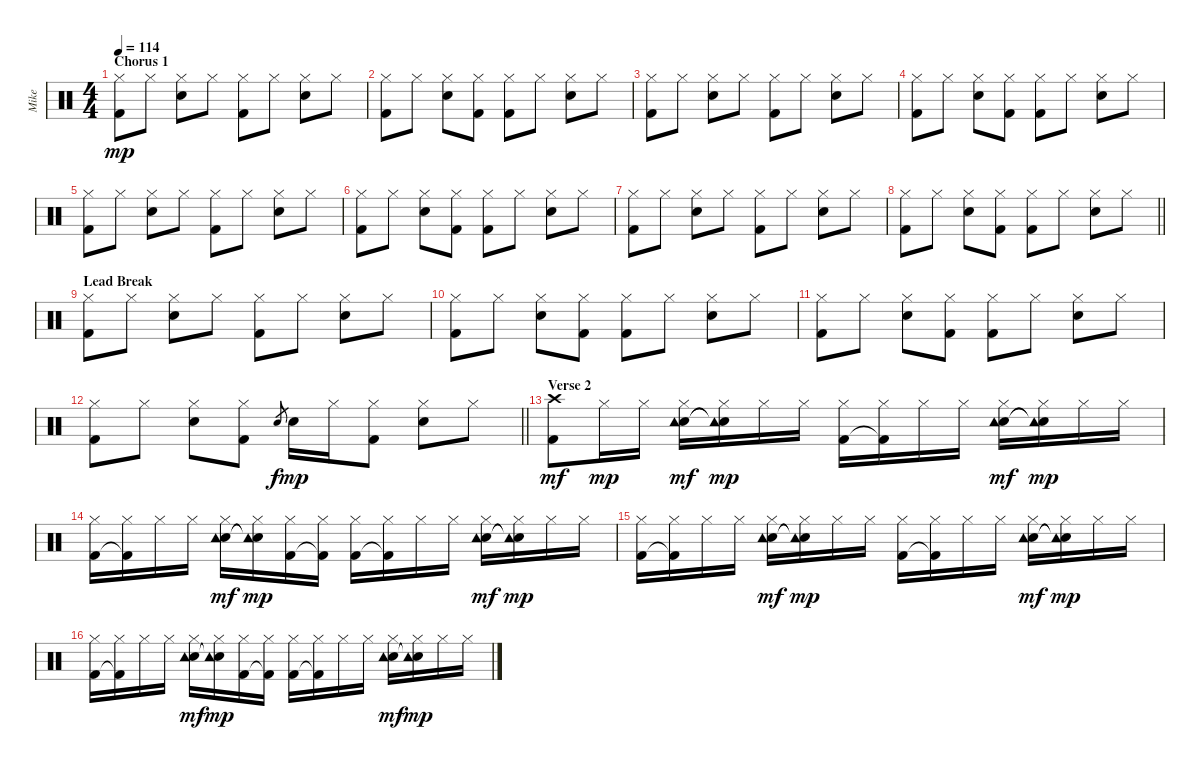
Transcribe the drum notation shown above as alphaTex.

\track ("Mike" "Mike") {instrument percussion}
\staff {score}
\articulation defaults
\ts (4 4)
\section ("" "Chorus 1")
\tempo 114
\clef neutral
\ks c
("Hi-Hat (closed)" "Kick (hit) 2").8{dy mp} "Hi-Hat (closed)".8 ("Hi-Hat (closed)" "Electric Snare (hit)").8 "Hi-Hat (closed)".8 ("Hi-Hat (closed)" "Kick (hit) 2").8 "Hi-Hat (closed)".8 ("Hi-Hat (closed)" "Electric Snare (hit)").8 "Hi-Hat (closed)".8 |
("Hi-Hat (closed)" "Kick (hit) 2").8 "Hi-Hat (closed)".8 ("Hi-Hat (closed)" "Electric Snare (hit)").8 ("Hi-Hat (closed)" "Kick (hit) 2").8 ("Hi-Hat (closed)" "Kick (hit) 2").8 "Hi-Hat (closed)".8 ("Hi-Hat (closed)" "Electric Snare (hit)").8 "Hi-Hat (closed)".8 |
("Hi-Hat (closed)" "Kick (hit) 2").8 "Hi-Hat (closed)".8 ("Hi-Hat (closed)" "Electric Snare (hit)").8 "Hi-Hat (closed)".8 ("Hi-Hat (closed)" "Kick (hit) 2").8 "Hi-Hat (closed)".8 ("Hi-Hat (closed)" "Electric Snare (hit)").8 "Hi-Hat (closed)".8 |
("Hi-Hat (closed)" "Kick (hit) 2").8 "Hi-Hat (closed)".8 ("Hi-Hat (closed)" "Electric Snare (hit)").8 ("Hi-Hat (closed)" "Kick (hit) 2").8 ("Hi-Hat (closed)" "Kick (hit) 2").8 "Hi-Hat (closed)".8 ("Hi-Hat (closed)" "Electric Snare (hit)").8 "Hi-Hat (closed)".8 |
("Hi-Hat (closed)" "Kick (hit) 2").8 "Hi-Hat (closed)".8 ("Hi-Hat (closed)" "Electric Snare (hit)").8 "Hi-Hat (closed)".8 ("Hi-Hat (closed)" "Kick (hit) 2").8 "Hi-Hat (closed)".8 ("Hi-Hat (closed)" "Electric Snare (hit)").8 "Hi-Hat (closed)".8 |
("Hi-Hat (closed)" "Kick (hit) 2").8 "Hi-Hat (closed)".8 ("Hi-Hat (closed)" "Electric Snare (hit)").8 ("Hi-Hat (closed)" "Kick (hit) 2").8 ("Hi-Hat (closed)" "Kick (hit) 2").8 "Hi-Hat (closed)".8 ("Hi-Hat (closed)" "Electric Snare (hit)").8 "Hi-Hat (closed)".8 |
("Hi-Hat (closed)" "Kick (hit) 2").8 "Hi-Hat (closed)".8 ("Hi-Hat (closed)" "Electric Snare (hit)").8 "Hi-Hat (closed)".8 ("Hi-Hat (closed)" "Kick (hit) 2").8 "Hi-Hat (closed)".8 ("Hi-Hat (closed)" "Electric Snare (hit)").8 "Hi-Hat (closed)".8 |
\barLineRight lightlight
("Hi-Hat (closed)" "Kick (hit) 2").8 "Hi-Hat (closed)".8 ("Hi-Hat (closed)" "Electric Snare (hit)").8 ("Hi-Hat (closed)" "Kick (hit) 2").8 ("Hi-Hat (closed)" "Kick (hit) 2").8 "Hi-Hat (closed)".8 ("Hi-Hat (closed)" "Electric Snare (hit)").8 "Hi-Hat (closed)".8 |
\section ("" "Lead Break")
("Hi-Hat (closed)" "Kick (hit) 2").8 "Hi-Hat (closed)".8 ("Hi-Hat (closed)" "Electric Snare (hit)").8 "Hi-Hat (closed)".8 ("Hi-Hat (closed)" "Kick (hit) 2").8 "Hi-Hat (closed)".8 ("Hi-Hat (closed)" "Electric Snare (hit)").8 "Hi-Hat (closed)".8 |
("Hi-Hat (closed)" "Kick (hit) 2").8 "Hi-Hat (closed)".8 ("Hi-Hat (closed)" "Electric Snare (hit)").8 ("Hi-Hat (closed)" "Kick (hit) 2").8 ("Hi-Hat (closed)" "Kick (hit) 2").8 "Hi-Hat (closed)".8 ("Hi-Hat (closed)" "Electric Snare (hit)").8 "Hi-Hat (closed)".8 |
("Hi-Hat (closed)" "Kick (hit) 2").8 "Hi-Hat (closed)".8 ("Hi-Hat (closed)" "Electric Snare (hit)").8 ("Hi-Hat (closed)" "Kick (hit) 2").8 ("Hi-Hat (closed)" "Kick (hit) 2").8 "Hi-Hat (closed)".8 ("Hi-Hat (closed)" "Electric Snare (hit)").8 "Hi-Hat (closed)".8 |
\barLineRight lightlight
("Hi-Hat (closed)" "Kick (hit) 2").8 "Hi-Hat (closed)".8 ("Hi-Hat (closed)" "Electric Snare (hit)").8 ("Hi-Hat (closed)" "Kick (hit) 2").8 "Electric Snare (hit)".8{gr dy f} "Electric Snare (hit)".16{dy mp} "Hi-Hat (closed)".16 ("Hi-Hat (closed)" "Kick (hit) 2").8 ("Hi-Hat (closed)" "Electric Snare (hit)").8 "Hi-Hat (closed)".8 |
\section ("" "Verse 2")
("Crash high (hit)" "Kick (hit) 2").8{dy mf} "Hi-Hat (closed)".16{dy mp} "Hi-Hat (closed)".16 ("Hi-Hat (closed)" "Electric Snare (hit)" "Tambourine (hit)").16{dy mf} ("Hi-Hat (closed)" "Electric Snare (hit)"{t} "Tambourine (hit)"{t}).16{dy mp} "Hi-Hat (closed)".16 "Hi-Hat (closed)".16 ("Hi-Hat (closed)" "Kick (hit) 2").16 ("Hi-Hat (closed)" "Kick (hit) 2"{t}).16 "Hi-Hat (closed)".16 "Hi-Hat (closed)".16 ("Hi-Hat (closed)" "Electric Snare (hit)" "Tambourine (hit)").16{dy mf} ("Hi-Hat (closed)" "Electric Snare (hit)"{t} "Tambourine (hit)"{t}).16{dy mp} "Hi-Hat (closed)".16 "Hi-Hat (closed)".16 |
("Hi-Hat (closed)" "Kick (hit) 2").16 ("Hi-Hat (closed)" "Kick (hit) 2"{t}).16 "Hi-Hat (closed)".16 "Hi-Hat (closed)".16 ("Hi-Hat (closed)" "Electric Snare (hit)" "Tambourine (hit)").16{dy mf} ("Hi-Hat (closed)" "Electric Snare (hit)"{t} "Tambourine (hit)"{t}).16{dy mp} ("Hi-Hat (closed)" "Kick (hit) 2").16 ("Hi-Hat (closed)" "Kick (hit) 2"{t}).16 ("Hi-Hat (closed)" "Kick (hit) 2").16 ("Hi-Hat (closed)" "Kick (hit) 2"{t}).16 "Hi-Hat (closed)".16 "Hi-Hat (closed)".16 ("Hi-Hat (closed)" "Electric Snare (hit)" "Tambourine (hit)").16{dy mf} ("Hi-Hat (closed)" "Electric Snare (hit)"{t} "Tambourine (hit)"{t}).16{dy mp} "Hi-Hat (closed)".16 "Hi-Hat (closed)".16 |
("Hi-Hat (closed)" "Kick (hit) 2").16 ("Hi-Hat (closed)" "Kick (hit) 2"{t}).16 "Hi-Hat (closed)".16 "Hi-Hat (closed)".16 ("Hi-Hat (closed)" "Electric Snare (hit)" "Tambourine (hit)").16{dy mf} ("Hi-Hat (closed)" "Electric Snare (hit)"{t} "Tambourine (hit)"{t}).16{dy mp} "Hi-Hat (closed)".16 "Hi-Hat (closed)".16 ("Hi-Hat (closed)" "Kick (hit) 2").16 ("Hi-Hat (closed)" "Kick (hit) 2"{t}).16 "Hi-Hat (closed)".16 "Hi-Hat (closed)".16 ("Hi-Hat (closed)" "Electric Snare (hit)" "Tambourine (hit)").16{dy mf} ("Hi-Hat (closed)" "Electric Snare (hit)"{t} "Tambourine (hit)"{t}).16{dy mp} "Hi-Hat (closed)".16 "Hi-Hat (closed)".16 |
("Hi-Hat (closed)" "Kick (hit) 2").16 ("Hi-Hat (closed)" "Kick (hit) 2"{t}).16 "Hi-Hat (closed)".16 "Hi-Hat (closed)".16 ("Hi-Hat (closed)" "Electric Snare (hit)" "Tambourine (hit)").16{dy mf} ("Hi-Hat (closed)" "Electric Snare (hit)"{t} "Tambourine (hit)"{t}).16{dy mp} ("Hi-Hat (closed)" "Kick (hit) 2").16 ("Hi-Hat (closed)" "Kick (hit) 2"{t}).16 ("Hi-Hat (closed)" "Kick (hit) 2").16 ("Hi-Hat (closed)" "Kick (hit) 2"{t}).16 "Hi-Hat (closed)".16 "Hi-Hat (closed)".16 ("Hi-Hat (closed)" "Electric Snare (hit)" "Tambourine (hit)").16{dy mf} ("Hi-Hat (closed)" "Electric Snare (hit)"{t} "Tambourine (hit)"{t}).16{dy mp} "Hi-Hat (closed)".16 "Hi-Hat (closed)".16
